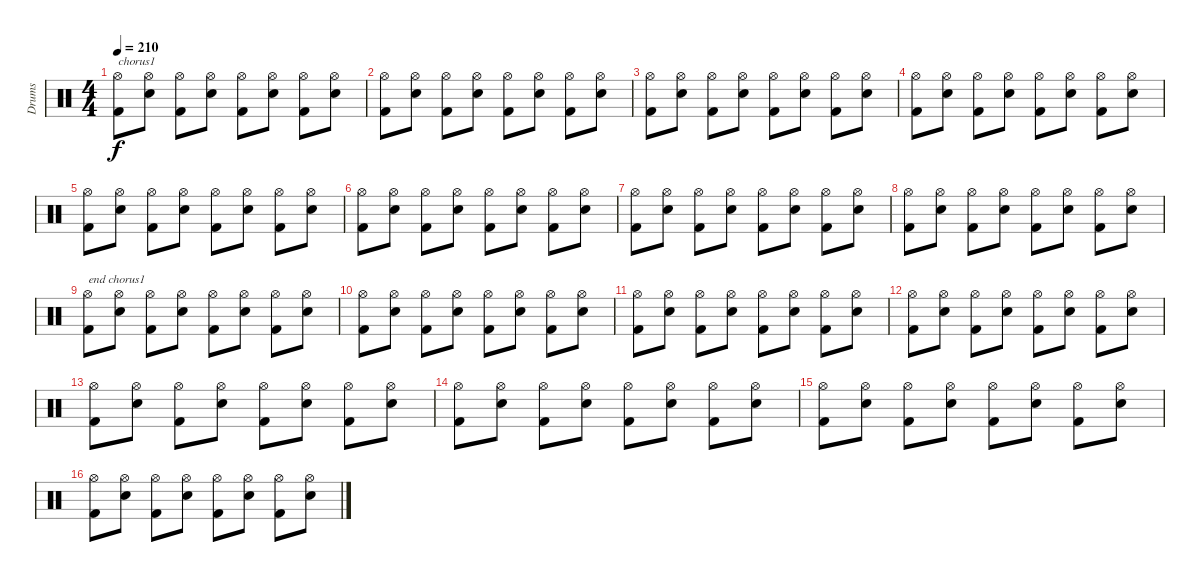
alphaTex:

\track ("Drums" "Drums") {instrument percussion}
\staff {score}
\articulation defaults
\ts (4 4)
\tempo 210
\clef neutral
\ks c
("Kick (hit) 2" "Hi-Hat (open)").8{txt "chorus1" dy f} ("Snare (hit) 2" "Hi-Hat (open)").8 ("Kick (hit) 2" "Hi-Hat (open)").8 ("Snare (hit) 2" "Hi-Hat (open)").8 ("Kick (hit) 2" "Hi-Hat (open)").8 ("Snare (hit) 2" "Hi-Hat (open)").8 ("Kick (hit) 2" "Hi-Hat (open)").8 ("Snare (hit) 2" "Hi-Hat (open)").8 |
("Kick (hit) 2" "Hi-Hat (open)").8 ("Snare (hit) 2" "Hi-Hat (open)").8 ("Kick (hit) 2" "Hi-Hat (open)").8 ("Snare (hit) 2" "Hi-Hat (open)").8 ("Kick (hit) 2" "Hi-Hat (open)").8 ("Snare (hit) 2" "Hi-Hat (open)").8 ("Kick (hit) 2" "Hi-Hat (open)").8 ("Snare (hit) 2" "Hi-Hat (open)").8 |
("Kick (hit) 2" "Hi-Hat (open)").8 ("Snare (hit) 2" "Hi-Hat (open)").8 ("Kick (hit) 2" "Hi-Hat (open)").8 ("Snare (hit) 2" "Hi-Hat (open)").8 ("Kick (hit) 2" "Hi-Hat (open)").8 ("Snare (hit) 2" "Hi-Hat (open)").8 ("Kick (hit) 2" "Hi-Hat (open)").8 ("Snare (hit) 2" "Hi-Hat (open)").8 |
("Kick (hit) 2" "Hi-Hat (open)").8 ("Snare (hit) 2" "Hi-Hat (open)").8 ("Kick (hit) 2" "Hi-Hat (open)").8 ("Snare (hit) 2" "Hi-Hat (open)").8 ("Kick (hit) 2" "Hi-Hat (open)").8 ("Snare (hit) 2" "Hi-Hat (open)").8 ("Kick (hit) 2" "Hi-Hat (open)").8 ("Snare (hit) 2" "Hi-Hat (open)").8 |
("Kick (hit) 2" "Hi-Hat (open)").8 ("Snare (hit) 2" "Hi-Hat (open)").8 ("Kick (hit) 2" "Hi-Hat (open)").8 ("Snare (hit) 2" "Hi-Hat (open)").8 ("Kick (hit) 2" "Hi-Hat (open)").8 ("Snare (hit) 2" "Hi-Hat (open)").8 ("Kick (hit) 2" "Hi-Hat (open)").8 ("Snare (hit) 2" "Hi-Hat (open)").8 |
("Kick (hit) 2" "Hi-Hat (open)").8 ("Snare (hit) 2" "Hi-Hat (open)").8 ("Kick (hit) 2" "Hi-Hat (open)").8 ("Snare (hit) 2" "Hi-Hat (open)").8 ("Kick (hit) 2" "Hi-Hat (open)").8 ("Snare (hit) 2" "Hi-Hat (open)").8 ("Kick (hit) 2" "Hi-Hat (open)").8 ("Snare (hit) 2" "Hi-Hat (open)").8 |
("Kick (hit) 2" "Hi-Hat (open)").8 ("Snare (hit) 2" "Hi-Hat (open)").8 ("Kick (hit) 2" "Hi-Hat (open)").8 ("Snare (hit) 2" "Hi-Hat (open)").8 ("Kick (hit) 2" "Hi-Hat (open)").8 ("Snare (hit) 2" "Hi-Hat (open)").8 ("Kick (hit) 2" "Hi-Hat (open)").8 ("Snare (hit) 2" "Hi-Hat (open)").8 |
("Kick (hit) 2" "Hi-Hat (open)").8 ("Snare (hit) 2" "Hi-Hat (open)").8 ("Kick (hit) 2" "Hi-Hat (open)").8 ("Snare (hit) 2" "Hi-Hat (open)").8 ("Kick (hit) 2" "Hi-Hat (open)").8 ("Snare (hit) 2" "Hi-Hat (open)").8 ("Kick (hit) 2" "Hi-Hat (open)").8 ("Snare (hit) 2" "Hi-Hat (open)").8 |
("Kick (hit) 2" "Hi-Hat (open)").8{txt "end chorus1"} ("Snare (hit) 2" "Hi-Hat (open)").8 ("Kick (hit) 2" "Hi-Hat (open)").8 ("Snare (hit) 2" "Hi-Hat (open)").8 ("Kick (hit) 2" "Hi-Hat (open)").8 ("Snare (hit) 2" "Hi-Hat (open)").8 ("Kick (hit) 2" "Hi-Hat (open)").8 ("Snare (hit) 2" "Hi-Hat (open)").8 |
("Kick (hit) 2" "Hi-Hat (open)").8 ("Snare (hit) 2" "Hi-Hat (open)").8 ("Kick (hit) 2" "Hi-Hat (open)").8 ("Snare (hit) 2" "Hi-Hat (open)").8 ("Kick (hit) 2" "Hi-Hat (open)").8 ("Snare (hit) 2" "Hi-Hat (open)").8 ("Kick (hit) 2" "Hi-Hat (open)").8 ("Snare (hit) 2" "Hi-Hat (open)").8 |
("Kick (hit) 2" "Hi-Hat (open)").8 ("Snare (hit) 2" "Hi-Hat (open)").8 ("Kick (hit) 2" "Hi-Hat (open)").8 ("Snare (hit) 2" "Hi-Hat (open)").8 ("Kick (hit) 2" "Hi-Hat (open)").8 ("Snare (hit) 2" "Hi-Hat (open)").8 ("Kick (hit) 2" "Hi-Hat (open)").8 ("Snare (hit) 2" "Hi-Hat (open)").8 |
("Kick (hit) 2" "Hi-Hat (open)").8 ("Snare (hit) 2" "Hi-Hat (open)").8 ("Kick (hit) 2" "Hi-Hat (open)").8 ("Snare (hit) 2" "Hi-Hat (open)").8 ("Kick (hit) 2" "Hi-Hat (open)").8 ("Snare (hit) 2" "Hi-Hat (open)").8 ("Kick (hit) 2" "Hi-Hat (open)").8 ("Snare (hit) 2" "Hi-Hat (open)").8 |
("Kick (hit) 2" "Hi-Hat (open)").8 ("Snare (hit) 2" "Hi-Hat (open)").8 ("Kick (hit) 2" "Hi-Hat (open)").8 ("Snare (hit) 2" "Hi-Hat (open)").8 ("Kick (hit) 2" "Hi-Hat (open)").8 ("Snare (hit) 2" "Hi-Hat (open)").8 ("Kick (hit) 2" "Hi-Hat (open)").8 ("Snare (hit) 2" "Hi-Hat (open)").8 |
("Kick (hit) 2" "Hi-Hat (open)").8 ("Snare (hit) 2" "Hi-Hat (open)").8 ("Kick (hit) 2" "Hi-Hat (open)").8 ("Snare (hit) 2" "Hi-Hat (open)").8 ("Kick (hit) 2" "Hi-Hat (open)").8 ("Snare (hit) 2" "Hi-Hat (open)").8 ("Kick (hit) 2" "Hi-Hat (open)").8 ("Snare (hit) 2" "Hi-Hat (open)").8 |
("Kick (hit) 2" "Hi-Hat (open)").8 ("Snare (hit) 2" "Hi-Hat (open)").8 ("Kick (hit) 2" "Hi-Hat (open)").8 ("Snare (hit) 2" "Hi-Hat (open)").8 ("Kick (hit) 2" "Hi-Hat (open)").8 ("Snare (hit) 2" "Hi-Hat (open)").8 ("Kick (hit) 2" "Hi-Hat (open)").8 ("Snare (hit) 2" "Hi-Hat (open)").8 |
("Kick (hit) 2" "Hi-Hat (open)").8 ("Snare (hit) 2" "Hi-Hat (open)").8 ("Kick (hit) 2" "Hi-Hat (open)").8 ("Snare (hit) 2" "Hi-Hat (open)").8 ("Kick (hit) 2" "Hi-Hat (open)").8 ("Snare (hit) 2" "Hi-Hat (open)").8 ("Kick (hit) 2" "Hi-Hat (open)").8 ("Snare (hit) 2" "Hi-Hat (open)").8
